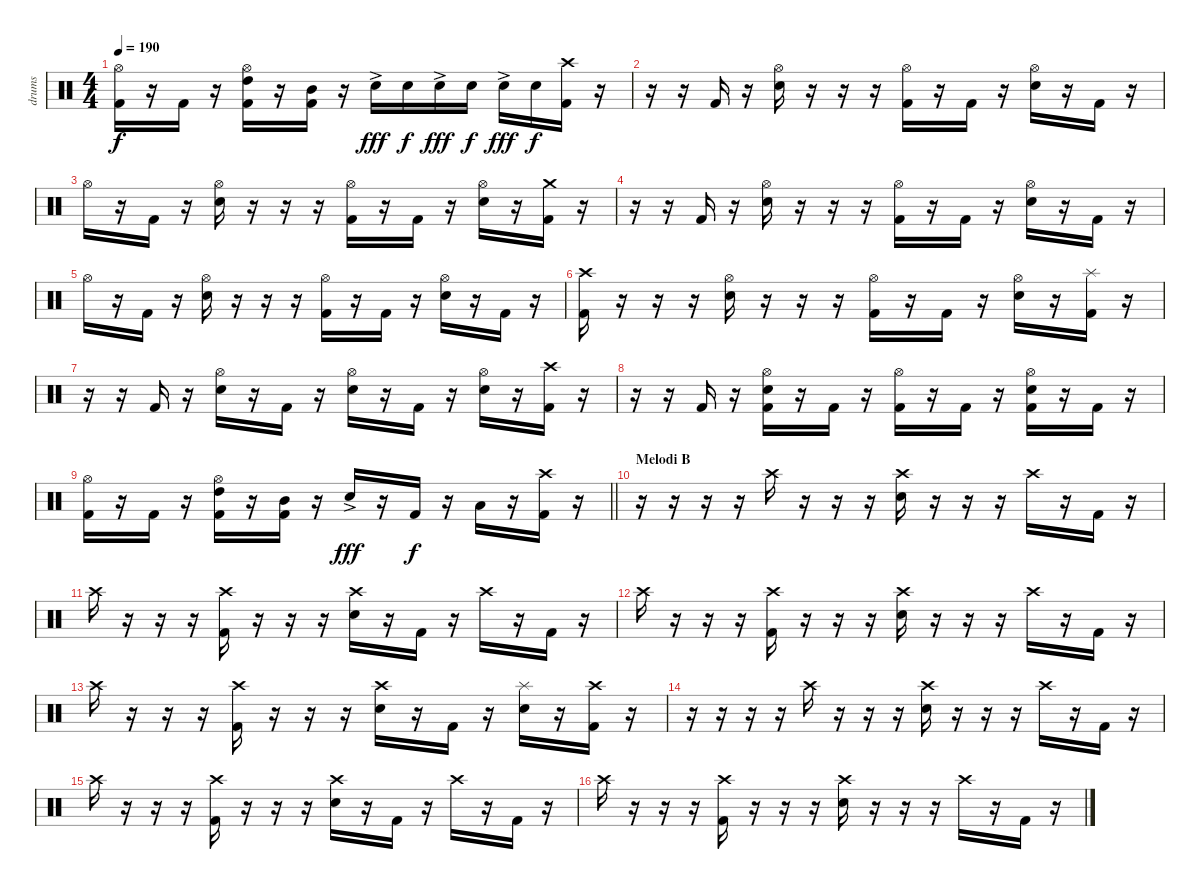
\track ("drums" "drums") {instrument percussion}
\staff {score}
\articulation defaults
\ts (4 4)
\tempo 190
\clef neutral
\ks c
("Hi-Hat (open)" "Kick (hit) 2").16{dy f} r.16 "Kick (hit) 2".16 r.16 ("Hi-Hat (open)" "High Tom (hit)" "Kick (hit) 2").16 r.16 ("Mid Tom (hit)" "Kick (hit) 2").16 r.16 "Electric Snare (hit)"{ac}.16{dy fff} "Electric Snare (hit)".16{dy f} "Electric Snare (hit)"{ac}.16{dy fff} "Electric Snare (hit)".16{dy f} "Electric Snare (hit)"{ac}.16{dy fff} "Electric Snare (hit)".16{dy f} ("Crash high (hit)" "Kick (hit) 2").16 r.16 |
r.16 r.16 "Kick (hit) 2".16 r.16 ("Hi-Hat (open)" "Electric Snare (hit)").16 r.16 r.16 r.16 ("Hi-Hat (open)" "Kick (hit) 2").16 r.16 "Kick (hit) 2".16 r.16 ("Hi-Hat (open)" "Electric Snare (hit)").16 r.16 "Kick (hit) 2".16 r.16 |
"Hi-Hat (open)".16 r.16 "Kick (hit) 2".16 r.16 ("Hi-Hat (open)" "Electric Snare (hit)").16 r.16 r.16 r.16 ("Hi-Hat (open)" "Kick (hit) 2").16 r.16 "Kick (hit) 2".16 r.16 ("Hi-Hat (open)" "Electric Snare (hit)").16 r.16 ("Crash medium (hit)" "Kick (hit) 2").16 r.16 |
r.16 r.16 "Kick (hit) 2".16 r.16 ("Hi-Hat (open)" "Electric Snare (hit)").16 r.16 r.16 r.16 ("Hi-Hat (open)" "Kick (hit) 2").16 r.16 "Kick (hit) 2".16 r.16 ("Hi-Hat (open)" "Electric Snare (hit)").16 r.16 "Kick (hit) 2".16 r.16 |
"Hi-Hat (open)".16 r.16 "Kick (hit) 2".16 r.16 ("Hi-Hat (open)" "Electric Snare (hit)").16 r.16 r.16 r.16 ("Hi-Hat (open)" "Kick (hit) 2").16 r.16 "Kick (hit) 2".16 r.16 ("Hi-Hat (open)" "Electric Snare (hit)").16 r.16 "Kick (hit) 2".16 r.16 |
("Crash high (hit)" "Kick (hit) 2").16 r.16 r.16 r.16 ("Hi-Hat (open)" "Electric Snare (hit)").16 r.16 r.16 r.16 ("Hi-Hat (open)" "Kick (hit) 2").16 r.16 "Kick (hit) 2".16 r.16 ("Hi-Hat (open)" "Electric Snare (hit)").16 r.16 ("Splash (hit)" "Kick (hit) 2").16 r.16 |
r.16 r.16 "Kick (hit) 2".16 r.16 ("Hi-Hat (open)" "Electric Snare (hit)").16 r.16 "Kick (hit) 2".16 r.16 ("Hi-Hat (open)" "Electric Snare (hit)").16 r.16 "Kick (hit) 2".16 r.16 ("Hi-Hat (open)" "Electric Snare (hit)").16 r.16 ("Crash high (hit)" "Kick (hit) 2").16 r.16 |
r.16 r.16 "Kick (hit) 2".16 r.16 ("Hi-Hat (open)" "Electric Snare (hit)" "Kick (hit) 2").16 r.16 "Kick (hit) 2".16 r.16 ("Hi-Hat (open)" "Kick (hit) 2").16 r.16 "Kick (hit) 2".16 r.16 ("Hi-Hat (open)" "Electric Snare (hit)" "Kick (hit) 2").16 r.16 "Kick (hit) 2".16 r.16 |
\barLineRight lightlight
("Hi-Hat (open)" "Kick (hit) 2").16 r.16 "Kick (hit) 2".16 r.16 ("Hi-Hat (open)" "High Tom (hit)" "Kick (hit) 2").16 r.16 ("Mid Tom (hit)" "Kick (hit) 2").16 r.16 "Electric Snare (hit)"{ac}.16{dy fff} r.16 "Kick (hit) 2".16{dy f} r.16 "Low Tom (hit)".16 r.16 ("Crash high (hit)" "Kick (hit) 2").16 r.16 |
\section ("" "Melodi B")
r.16 r.16 r.16 r.16 "Crash high (hit)".16 r.16 r.16 r.16 ("Crash high (hit)" "Electric Snare (hit)").16 r.16 r.16 r.16 "Crash high (hit)".16 r.16 "Kick (hit) 2".16 r.16 |
"Crash high (hit)".16 r.16 r.16 r.16 ("Crash high (hit)" "Kick (hit) 2").16 r.16 r.16 r.16 ("Crash high (hit)" "Electric Snare (hit)").16 r.16 "Kick (hit) 2".16 r.16 "Crash high (hit)".16 r.16 "Kick (hit) 2".16 r.16 |
"Crash high (hit)".16 r.16 r.16 r.16 ("Crash high (hit)" "Kick (hit) 2").16 r.16 r.16 r.16 ("Crash high (hit)" "Electric Snare (hit)").16 r.16 r.16 r.16 "Crash high (hit)".16 r.16 "Kick (hit) 2".16 r.16 |
"Crash high (hit)".16 r.16 r.16 r.16 ("Crash high (hit)" "Kick (hit) 2").16 r.16 r.16 r.16 ("Crash high (hit)" "Electric Snare (hit)").16 r.16 "Kick (hit) 2".16 r.16 ("Splash (hit)" "Electric Snare (hit)").16 r.16 ("Crash high (hit)" "Kick (hit) 2").16 r.16 |
r.16 r.16 r.16 r.16 "Crash high (hit)".16 r.16 r.16 r.16 ("Crash high (hit)" "Electric Snare (hit)").16 r.16 r.16 r.16 "Crash high (hit)".16 r.16 "Kick (hit) 2".16 r.16 |
"Crash high (hit)".16 r.16 r.16 r.16 ("Crash high (hit)" "Kick (hit) 2").16 r.16 r.16 r.16 ("Crash high (hit)" "Electric Snare (hit)").16 r.16 "Kick (hit) 2".16 r.16 "Crash high (hit)".16 r.16 "Kick (hit) 2".16 r.16 |
"Crash high (hit)".16 r.16 r.16 r.16 ("Crash high (hit)" "Kick (hit) 2").16 r.16 r.16 r.16 ("Crash high (hit)" "Electric Snare (hit)").16 r.16 r.16 r.16 "Crash high (hit)".16 r.16 "Kick (hit) 2".16 r.16
